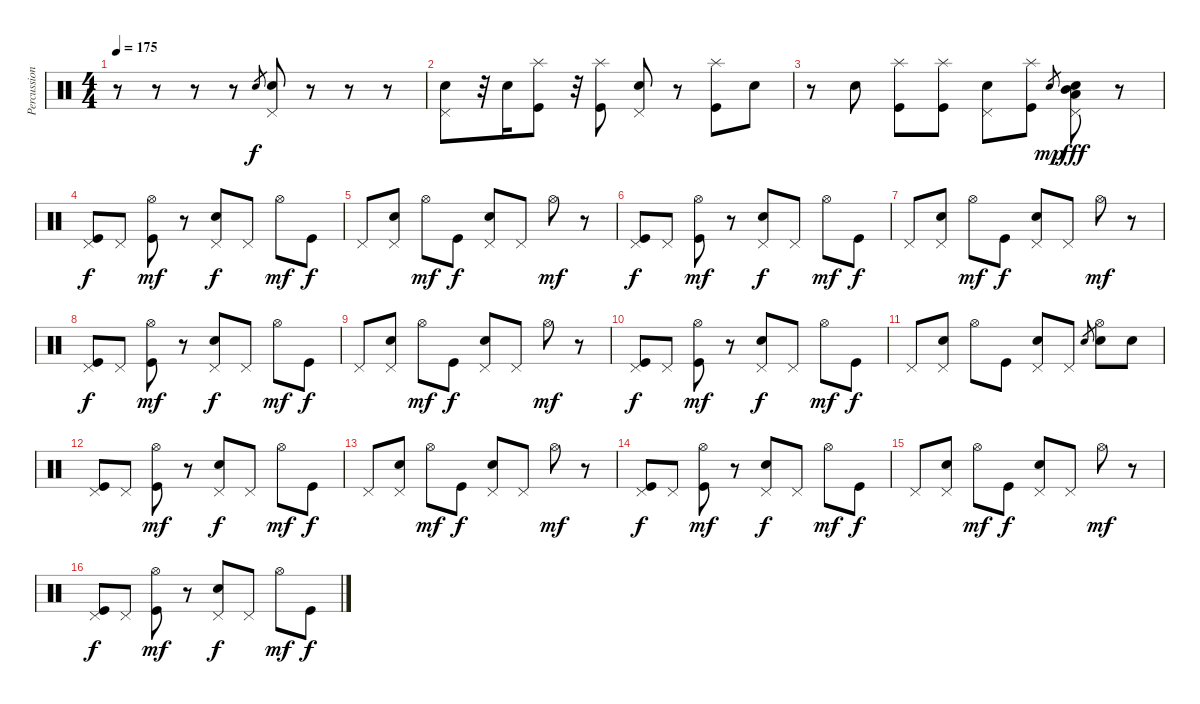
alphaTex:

\track ("Percussions" "Percussion") {instrument percussion}
\staff {score}
\articulation defaults
\ts (4 4)
\tempo 175
\clef neutral
\ks c
r.8{dy f} r.8 r.8 r.8 "Snare (hit) 2".8{gr} ("Pedal Hi-Hat (hit)" "Snare (hit) 2").8 r.8 r.8 r.8 |
("Pedal Hi-Hat (hit)" "Snare (hit) 2").8 r.32 "Snare (hit) 2".16 ("Splash (hit)" "Kick (hit)").8 r.32 ("Splash (hit)" "Kick (hit)").8 ("Pedal Hi-Hat (hit)" "Snare (hit) 2").8 r.8 ("Splash (hit)" "Kick (hit)").8 "Snare (hit) 2".8 |
r.8 "Snare (hit) 2".8 ("Splash (hit)" "Kick (hit)").8 ("Splash (hit)" "Kick (hit)").8 ("Pedal Hi-Hat (hit)" "Snare (hit) 2").8 ("Splash (hit)" "Kick (hit)").8 "Snare (hit) 2".8{gr dy mp} ("Pedal Hi-Hat (hit)" "Snare (hit) 2" "Low Tom (hit)" "Mid Tom (hit)").8{dy fff} r.8 |
("Pedal Hi-Hat (hit)" "Kick (hit)").8{dy f} "Pedal Hi-Hat (hit)".8 ("Hi-Hat (open)" "Kick (hit)").8{dy mf} r.8 ("Pedal Hi-Hat (hit)" "Snare (hit) 2").8{dy f} "Pedal Hi-Hat (hit)".8 "Hi-Hat (open)".8{dy mf} "Kick (hit)".8{dy f} |
"Pedal Hi-Hat (hit)".8 ("Pedal Hi-Hat (hit)" "Snare (hit) 2").8 "Hi-Hat (open)".8{dy mf} "Kick (hit)".8{dy f} ("Pedal Hi-Hat (hit)" "Snare (hit) 2").8 "Pedal Hi-Hat (hit)".8 "Hi-Hat (open)".8{dy mf} r.8 |
("Pedal Hi-Hat (hit)" "Kick (hit)").8{dy f} "Pedal Hi-Hat (hit)".8 ("Hi-Hat (open)" "Kick (hit)").8{dy mf} r.8 ("Pedal Hi-Hat (hit)" "Snare (hit) 2").8{dy f} "Pedal Hi-Hat (hit)".8 "Hi-Hat (open)".8{dy mf} "Kick (hit)".8{dy f} |
"Pedal Hi-Hat (hit)".8 ("Pedal Hi-Hat (hit)" "Snare (hit) 2").8 "Hi-Hat (open)".8{dy mf} "Kick (hit)".8{dy f} ("Pedal Hi-Hat (hit)" "Snare (hit) 2").8 "Pedal Hi-Hat (hit)".8 "Hi-Hat (open)".8{dy mf} r.8 |
("Pedal Hi-Hat (hit)" "Kick (hit)").8{dy f} "Pedal Hi-Hat (hit)".8 ("Hi-Hat (open)" "Kick (hit)").8{dy mf} r.8 ("Pedal Hi-Hat (hit)" "Snare (hit) 2").8{dy f} "Pedal Hi-Hat (hit)".8 "Hi-Hat (open)".8{dy mf} "Kick (hit)".8{dy f} |
"Pedal Hi-Hat (hit)".8 ("Pedal Hi-Hat (hit)" "Snare (hit) 2").8 "Hi-Hat (open)".8{dy mf} "Kick (hit)".8{dy f} ("Pedal Hi-Hat (hit)" "Snare (hit) 2").8 "Pedal Hi-Hat (hit)".8 "Hi-Hat (open)".8{dy mf} r.8 |
("Pedal Hi-Hat (hit)" "Kick (hit)").8{dy f} "Pedal Hi-Hat (hit)".8 ("Hi-Hat (open)" "Kick (hit)").8{dy mf} r.8 ("Pedal Hi-Hat (hit)" "Snare (hit) 2").8{dy f} "Pedal Hi-Hat (hit)".8 "Hi-Hat (open)".8{dy mf} "Kick (hit)".8{dy f} |
"Pedal Hi-Hat (hit)".8 ("Pedal Hi-Hat (hit)" "Snare (hit) 2").8 "Hi-Hat (open)".8 "Kick (hit)".8 ("Pedal Hi-Hat (hit)" "Snare (hit) 2").8 "Pedal Hi-Hat (hit)".8 "Snare (hit) 2".8{gr} ("Hi-Hat (open)" "Snare (hit) 2").8 "Snare (hit) 2".8 |
("Pedal Hi-Hat (hit)" "Kick (hit)").8 "Pedal Hi-Hat (hit)".8 ("Hi-Hat (open)" "Kick (hit)").8{dy mf} r.8 ("Pedal Hi-Hat (hit)" "Snare (hit) 2").8{dy f} "Pedal Hi-Hat (hit)".8 "Hi-Hat (open)".8{dy mf} "Kick (hit)".8{dy f} |
"Pedal Hi-Hat (hit)".8 ("Pedal Hi-Hat (hit)" "Snare (hit) 2").8 "Hi-Hat (open)".8{dy mf} "Kick (hit)".8{dy f} ("Pedal Hi-Hat (hit)" "Snare (hit) 2").8 "Pedal Hi-Hat (hit)".8 "Hi-Hat (open)".8{dy mf} r.8 |
("Pedal Hi-Hat (hit)" "Kick (hit)").8{dy f} "Pedal Hi-Hat (hit)".8 ("Hi-Hat (open)" "Kick (hit)").8{dy mf} r.8 ("Pedal Hi-Hat (hit)" "Snare (hit) 2").8{dy f} "Pedal Hi-Hat (hit)".8 "Hi-Hat (open)".8{dy mf} "Kick (hit)".8{dy f} |
"Pedal Hi-Hat (hit)".8 ("Pedal Hi-Hat (hit)" "Snare (hit) 2").8 "Hi-Hat (open)".8{dy mf} "Kick (hit)".8{dy f} ("Pedal Hi-Hat (hit)" "Snare (hit) 2").8 "Pedal Hi-Hat (hit)".8 "Hi-Hat (open)".8{dy mf} r.8 |
("Pedal Hi-Hat (hit)" "Kick (hit)").8{dy f} "Pedal Hi-Hat (hit)".8 ("Hi-Hat (open)" "Kick (hit)").8{dy mf} r.8 ("Pedal Hi-Hat (hit)" "Snare (hit) 2").8{dy f} "Pedal Hi-Hat (hit)".8 "Hi-Hat (open)".8{dy mf} "Kick (hit)".8{dy f}
